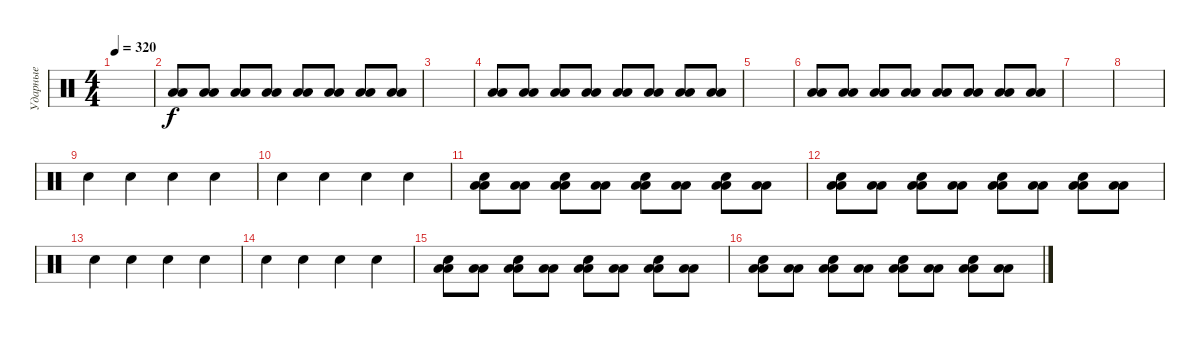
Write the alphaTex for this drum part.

\track ("Ударные" "Ударные") {instrument percussion}
\staff {score}
\articulation defaults
\ts (4 4)
\tempo 320
\clef neutral
\ks c
|
("Low Floor Tom (hit)" "Low Floor Tom (hit)").8 ("Low Floor Tom (hit)" "Low Floor Tom (hit)").8 ("Low Floor Tom (hit)" "Low Floor Tom (hit)").8 ("Low Floor Tom (hit)" "Low Floor Tom (hit)").8 ("Low Floor Tom (hit)" "Low Floor Tom (hit)").8 ("Low Floor Tom (hit)" "Low Floor Tom (hit)").8 ("Low Floor Tom (hit)" "Low Floor Tom (hit)").8 ("Low Floor Tom (hit)" "Low Floor Tom (hit)").8 |
|
("Low Floor Tom (hit)" "Low Floor Tom (hit)").8 ("Low Floor Tom (hit)" "Low Floor Tom (hit)").8 ("Low Floor Tom (hit)" "Low Floor Tom (hit)").8 ("Low Floor Tom (hit)" "Low Floor Tom (hit)").8 ("Low Floor Tom (hit)" "Low Floor Tom (hit)").8 ("Low Floor Tom (hit)" "Low Floor Tom (hit)").8 ("Low Floor Tom (hit)" "Low Floor Tom (hit)").8 ("Low Floor Tom (hit)" "Low Floor Tom (hit)").8 |
|
("Low Floor Tom (hit)" "Low Floor Tom (hit)").8 ("Low Floor Tom (hit)" "Low Floor Tom (hit)").8 ("Low Floor Tom (hit)" "Low Floor Tom (hit)").8 ("Low Floor Tom (hit)" "Low Floor Tom (hit)").8 ("Low Floor Tom (hit)" "Low Floor Tom (hit)").8 ("Low Floor Tom (hit)" "Low Floor Tom (hit)").8 ("Low Floor Tom (hit)" "Low Floor Tom (hit)").8 ("Low Floor Tom (hit)" "Low Floor Tom (hit)").8 |
|
|
"Electric Snare (hit)".4 "Electric Snare (hit)".4 "Electric Snare (hit)".4 "Electric Snare (hit)".4 |
"Electric Snare (hit)".4 "Electric Snare (hit)".4 "Electric Snare (hit)".4 "Electric Snare (hit)".4 |
("Low Floor Tom (hit)" "Low Floor Tom (hit)" "Electric Snare (hit)").8 ("Low Floor Tom (hit)" "Low Floor Tom (hit)").8 ("Low Floor Tom (hit)" "Low Floor Tom (hit)" "Electric Snare (hit)").8 ("Low Floor Tom (hit)" "Low Floor Tom (hit)").8 ("Low Floor Tom (hit)" "Low Floor Tom (hit)" "Electric Snare (hit)").8 ("Low Floor Tom (hit)" "Low Floor Tom (hit)").8 ("Low Floor Tom (hit)" "Low Floor Tom (hit)" "Electric Snare (hit)").8 ("Low Floor Tom (hit)" "Low Floor Tom (hit)").8 |
("Low Floor Tom (hit)" "Low Floor Tom (hit)" "Electric Snare (hit)").8 ("Low Floor Tom (hit)" "Low Floor Tom (hit)").8 ("Low Floor Tom (hit)" "Low Floor Tom (hit)" "Electric Snare (hit)").8 ("Low Floor Tom (hit)" "Low Floor Tom (hit)").8 ("Low Floor Tom (hit)" "Low Floor Tom (hit)" "Electric Snare (hit)").8 ("Low Floor Tom (hit)" "Low Floor Tom (hit)").8 ("Low Floor Tom (hit)" "Low Floor Tom (hit)" "Electric Snare (hit)").8 ("Low Floor Tom (hit)" "Low Floor Tom (hit)").8 |
"Electric Snare (hit)".4 "Electric Snare (hit)".4 "Electric Snare (hit)".4 "Electric Snare (hit)".4 |
"Electric Snare (hit)".4 "Electric Snare (hit)".4 "Electric Snare (hit)".4 "Electric Snare (hit)".4 |
("Low Floor Tom (hit)" "Low Floor Tom (hit)" "Electric Snare (hit)").8 ("Low Floor Tom (hit)" "Low Floor Tom (hit)").8 ("Low Floor Tom (hit)" "Low Floor Tom (hit)" "Electric Snare (hit)").8 ("Low Floor Tom (hit)" "Low Floor Tom (hit)").8 ("Low Floor Tom (hit)" "Low Floor Tom (hit)" "Electric Snare (hit)").8 ("Low Floor Tom (hit)" "Low Floor Tom (hit)").8 ("Low Floor Tom (hit)" "Low Floor Tom (hit)" "Electric Snare (hit)").8 ("Low Floor Tom (hit)" "Low Floor Tom (hit)").8 |
("Low Floor Tom (hit)" "Low Floor Tom (hit)" "Electric Snare (hit)").8 ("Low Floor Tom (hit)" "Low Floor Tom (hit)").8 ("Low Floor Tom (hit)" "Low Floor Tom (hit)" "Electric Snare (hit)").8 ("Low Floor Tom (hit)" "Low Floor Tom (hit)").8 ("Low Floor Tom (hit)" "Low Floor Tom (hit)" "Electric Snare (hit)").8 ("Low Floor Tom (hit)" "Low Floor Tom (hit)").8 ("Low Floor Tom (hit)" "Low Floor Tom (hit)" "Electric Snare (hit)").8 ("Low Floor Tom (hit)" "Low Floor Tom (hit)").8
